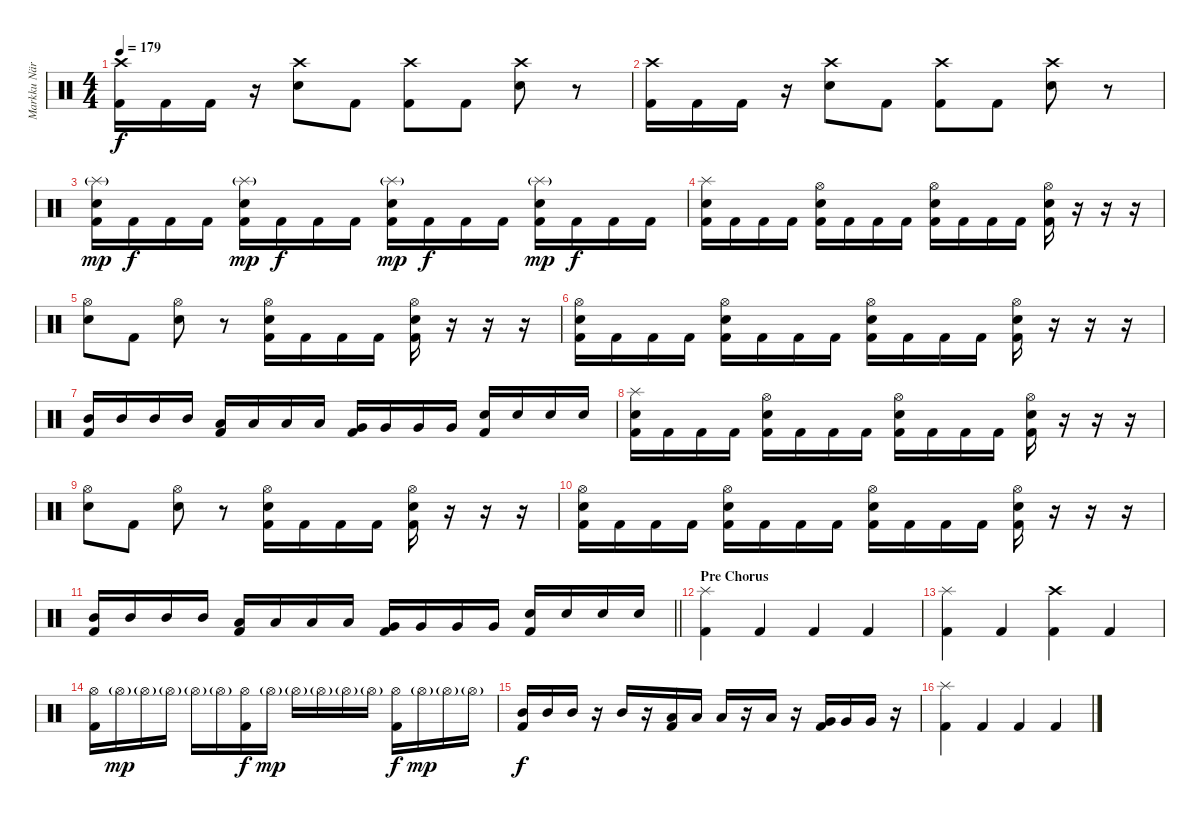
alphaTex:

\track ("Markku Näreneva (Drums)" "Markku När") {instrument percussion}
\staff {score}
\articulation defaults
\ts (4 4)
\tempo 179
\clef neutral
\ks c
("Kick (hit) 2" "Crash high (hit)").16{dy f} "Kick (hit) 2".16 "Kick (hit) 2".16 r.16 ("Snare (hit) 2" "Crash high (hit)").8 "Kick (hit) 2".8 ("Kick (hit) 2" "Crash high (hit)").8 "Kick (hit) 2".8 ("Snare (hit) 2" "Crash high (hit)").8 r.8 |
("Kick (hit) 2" "Crash high (hit)").16 "Kick (hit) 2".16 "Kick (hit) 2".16 r.16 ("Snare (hit) 2" "Crash high (hit)").8 "Kick (hit) 2".8 ("Kick (hit) 2" "Crash high (hit)").8 "Kick (hit) 2".8 ("Snare (hit) 2" "Crash high (hit)").8 r.8 |
("Kick (hit) 2" "Snare (hit) 2" "Splash (hit)"{g}).16{dy mp} "Kick (hit) 2".16{dy f} "Kick (hit) 2".16 "Kick (hit) 2".16 ("Kick (hit) 2" "Snare (hit) 2" "Splash (hit)"{g}).16{dy mp} "Kick (hit) 2".16{dy f} "Kick (hit) 2".16 "Kick (hit) 2".16 ("Kick (hit) 2" "Snare (hit) 2" "Splash (hit)"{g}).16{dy mp} "Kick (hit) 2".16{dy f} "Kick (hit) 2".16 "Kick (hit) 2".16 ("Kick (hit) 2" "Snare (hit) 2" "Splash (hit)"{g}).16{dy mp} "Kick (hit) 2".16{dy f} "Kick (hit) 2".16 "Kick (hit) 2".16 |
("Kick (hit) 2" "Snare (hit) 2" "Splash (hit)").16 "Kick (hit) 2".16 "Kick (hit) 2".16 "Kick (hit) 2".16 ("Kick (hit) 2" "Snare (hit) 2" "Hi-Hat (open)").16 "Kick (hit) 2".16 "Kick (hit) 2".16 "Kick (hit) 2".16 ("Kick (hit) 2" "Snare (hit) 2" "Hi-Hat (open)").16 "Kick (hit) 2".16 "Kick (hit) 2".16 "Kick (hit) 2".16 ("Kick (hit) 2" "Snare (hit) 2" "Hi-Hat (open)").16 r.16 r.16 r.16 |
("Snare (hit) 2" "Hi-Hat (open)").8 "Kick (hit) 2".8 ("Snare (hit) 2" "Hi-Hat (open)").8 r.8 ("Kick (hit) 2" "Snare (hit) 2" "Hi-Hat (open)").16 "Kick (hit) 2".16 "Kick (hit) 2".16 "Kick (hit) 2".16 ("Kick (hit) 2" "Snare (hit) 2" "Hi-Hat (open)").16 r.16 r.16 r.16 |
("Kick (hit) 2" "Snare (hit) 2" "Hi-Hat (open)").16 "Kick (hit) 2".16 "Kick (hit) 2".16 "Kick (hit) 2".16 ("Kick (hit) 2" "Snare (hit) 2" "Hi-Hat (open)").16 "Kick (hit) 2".16 "Kick (hit) 2".16 "Kick (hit) 2".16 ("Kick (hit) 2" "Snare (hit) 2" "Hi-Hat (open)").16 "Kick (hit) 2".16 "Kick (hit) 2".16 "Kick (hit) 2".16 ("Kick (hit) 2" "Snare (hit) 2" "Hi-Hat (open)").16 r.16 r.16 r.16 |
("Kick (hit) 2" "Mid Tom (hit)").16 "Mid Tom (hit)".16 "Mid Tom (hit)".16 "Mid Tom (hit)".16 ("Kick (hit) 2" "Low Tom (hit)").16 "Low Tom (hit)".16 "Low Tom (hit)".16 "Low Tom (hit)".16 ("Kick (hit) 2" "Very Low Tom (hit)").16 "Very Low Tom (hit)".16 "Very Low Tom (hit)".16 "Very Low Tom (hit)".16 ("Kick (hit) 2" "Snare (hit) 2").16 "Snare (hit) 2".16 "Snare (hit) 2".16 "Snare (hit) 2".16 |
("Kick (hit) 2" "Snare (hit) 2" "Splash (hit)").16 "Kick (hit) 2".16 "Kick (hit) 2".16 "Kick (hit) 2".16 ("Kick (hit) 2" "Snare (hit) 2" "Hi-Hat (open)").16 "Kick (hit) 2".16 "Kick (hit) 2".16 "Kick (hit) 2".16 ("Kick (hit) 2" "Snare (hit) 2" "Hi-Hat (open)").16 "Kick (hit) 2".16 "Kick (hit) 2".16 "Kick (hit) 2".16 ("Kick (hit) 2" "Snare (hit) 2" "Hi-Hat (open)").16 r.16 r.16 r.16 |
("Snare (hit) 2" "Hi-Hat (open)").8 "Kick (hit) 2".8 ("Snare (hit) 2" "Hi-Hat (open)").8 r.8 ("Kick (hit) 2" "Snare (hit) 2" "Hi-Hat (open)").16 "Kick (hit) 2".16 "Kick (hit) 2".16 "Kick (hit) 2".16 ("Kick (hit) 2" "Snare (hit) 2" "Hi-Hat (open)").16 r.16 r.16 r.16 |
("Kick (hit) 2" "Snare (hit) 2" "Hi-Hat (open)").16 "Kick (hit) 2".16 "Kick (hit) 2".16 "Kick (hit) 2".16 ("Kick (hit) 2" "Snare (hit) 2" "Hi-Hat (open)").16 "Kick (hit) 2".16 "Kick (hit) 2".16 "Kick (hit) 2".16 ("Kick (hit) 2" "Snare (hit) 2" "Hi-Hat (open)").16 "Kick (hit) 2".16 "Kick (hit) 2".16 "Kick (hit) 2".16 ("Kick (hit) 2" "Snare (hit) 2" "Hi-Hat (open)").16 r.16 r.16 r.16 |
\barLineRight lightlight
("Kick (hit) 2" "Mid Tom (hit)").16 "Mid Tom (hit)".16 "Mid Tom (hit)".16 "Mid Tom (hit)".16 ("Kick (hit) 2" "Low Tom (hit)").16 "Low Tom (hit)".16 "Low Tom (hit)".16 "Low Tom (hit)".16 ("Kick (hit) 2" "Very Low Tom (hit)").16 "Very Low Tom (hit)".16 "Very Low Tom (hit)".16 "Very Low Tom (hit)".16 ("Kick (hit) 2" "Snare (hit) 2").16 "Snare (hit) 2".16 "Snare (hit) 2".16 "Snare (hit) 2".16 |
\section ("" "Pre Chorus")
("Kick (hit) 2" "Splash (hit)").4 "Kick (hit) 2".4 "Kick (hit) 2".4 "Kick (hit) 2".4 |
("Kick (hit) 2" "Splash (hit)").4 "Kick (hit) 2".4 ("Kick (hit) 2" "Crash high (hit)").4 "Kick (hit) 2".4 |
("Kick (hit) 2" "Hi-Hat (open)").16 "Hi-Hat (open)"{g}.16{dy mp} "Hi-Hat (open)"{g}.16 "Hi-Hat (open)"{g}.16 "Hi-Hat (open)"{g}.16 "Hi-Hat (open)"{g}.16 ("Kick (hit) 2" "Hi-Hat (open)").16{dy f} "Hi-Hat (open)"{g}.16{dy mp} "Hi-Hat (open)"{g}.16 "Hi-Hat (open)"{g}.16 "Hi-Hat (open)"{g}.16 "Hi-Hat (open)"{g}.16 ("Kick (hit) 2" "Hi-Hat (open)").16{dy f} "Hi-Hat (open)"{g}.16{dy mp} "Hi-Hat (open)"{g}.16 "Hi-Hat (open)"{g}.16 |
("Kick (hit) 2" "Mid Tom (hit)").16{dy f} "Mid Tom (hit)".16 "Mid Tom (hit)".16 r.16 "Mid Tom (hit)".16 r.16 ("Kick (hit) 2" "Low Tom (hit)").16 "Low Tom (hit)".16 "Low Tom (hit)".16 r.16 "Low Tom (hit)".16 r.16 ("Kick (hit) 2" "Very Low Tom (hit)").16 "Very Low Tom (hit)".16 "Very Low Tom (hit)".16 r.16 |
("Kick (hit) 2" "Splash (hit)").4 "Kick (hit) 2".4 "Kick (hit) 2".4 "Kick (hit) 2".4
